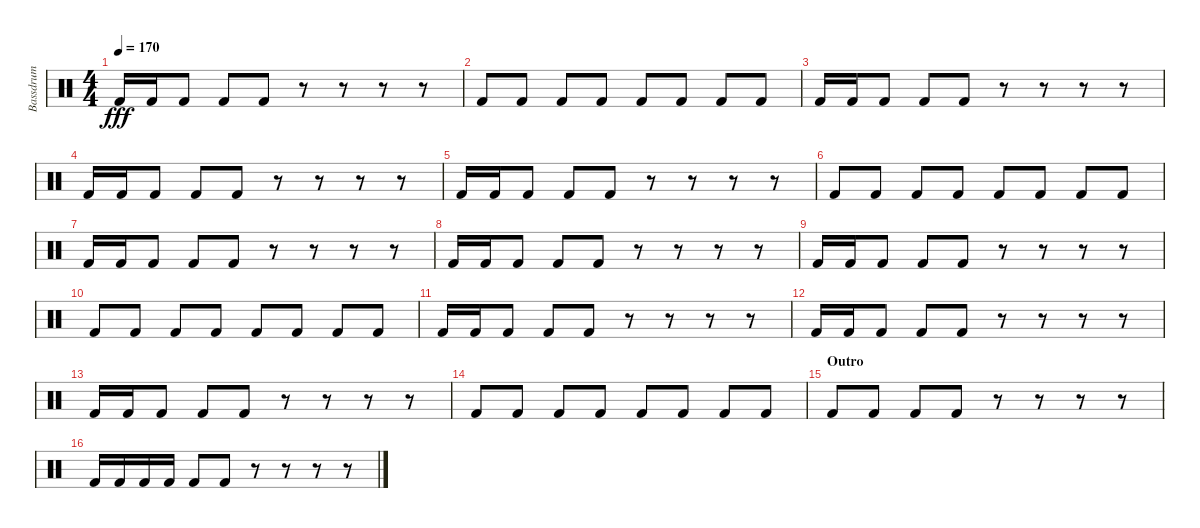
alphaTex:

\track ("Bassdrum" "Bassdrum") {instrument percussion}
\staff {score}
\articulation defaults
\ts (4 4)
\tempo 170
\clef neutral
\ks c "Kick (hit) 2".16{dy fff} "Kick (hit) 2".16 "Kick (hit) 2".8 "Kick (hit) 2".8 "Kick (hit) 2".8
r.8 r.8 r.8 r.8 |
"Kick (hit) 2".8 "Kick (hit) 2".8 "Kick (hit) 2".8 "Kick (hit) 2".8 "Kick (hit) 2".8 "Kick (hit) 2".8 "Kick (hit) 2".8 "Kick (hit) 2".8 |
"Kick (hit) 2".16 "Kick (hit) 2".16 "Kick (hit) 2".8 "Kick (hit) 2".8 "Kick (hit) 2".8 r.8 r.8 r.8 r.8 |
"Kick (hit) 2".16 "Kick (hit) 2".16 "Kick (hit) 2".8 "Kick (hit) 2".8 "Kick (hit) 2".8 r.8 r.8 r.8 r.8 |
"Kick (hit) 2".16 "Kick (hit) 2".16 "Kick (hit) 2".8 "Kick (hit) 2".8 "Kick (hit) 2".8 r.8 r.8 r.8 r.8 |
"Kick (hit) 2".8 "Kick (hit) 2".8 "Kick (hit) 2".8 "Kick (hit) 2".8 "Kick (hit) 2".8 "Kick (hit) 2".8 "Kick (hit) 2".8 "Kick (hit) 2".8 |
"Kick (hit) 2".16 "Kick (hit) 2".16 "Kick (hit) 2".8 "Kick (hit) 2".8 "Kick (hit) 2".8 r.8 r.8 r.8 r.8 |
"Kick (hit) 2".16 "Kick (hit) 2".16 "Kick (hit) 2".8 "Kick (hit) 2".8 "Kick (hit) 2".8 r.8 r.8 r.8 r.8 |
"Kick (hit) 2".16 "Kick (hit) 2".16 "Kick (hit) 2".8 "Kick (hit) 2".8 "Kick (hit) 2".8 r.8 r.8 r.8 r.8 |
"Kick (hit) 2".8 "Kick (hit) 2".8 "Kick (hit) 2".8 "Kick (hit) 2".8 "Kick (hit) 2".8 "Kick (hit) 2".8 "Kick (hit) 2".8 "Kick (hit) 2".8 |
"Kick (hit) 2".16 "Kick (hit) 2".16 "Kick (hit) 2".8 "Kick (hit) 2".8 "Kick (hit) 2".8 r.8 r.8 r.8 r.8 |
"Kick (hit) 2".16 "Kick (hit) 2".16 "Kick (hit) 2".8 "Kick (hit) 2".8 "Kick (hit) 2".8 r.8 r.8 r.8 r.8 |
"Kick (hit) 2".16 "Kick (hit) 2".16 "Kick (hit) 2".8 "Kick (hit) 2".8 "Kick (hit) 2".8 r.8 r.8 r.8 r.8 |
"Kick (hit) 2".8 "Kick (hit) 2".8 "Kick (hit) 2".8 "Kick (hit) 2".8 "Kick (hit) 2".8 "Kick (hit) 2".8 "Kick (hit) 2".8 "Kick (hit) 2".8 |
\section ("" "Outro")
"Kick (hit) 2".8 "Kick (hit) 2".8 "Kick (hit) 2".8 "Kick (hit) 2".8 r.8 r.8 r.8 r.8 |
"Kick (hit) 2".16 "Kick (hit) 2".16 "Kick (hit) 2".16 "Kick (hit) 2".16 "Kick (hit) 2".8 "Kick (hit) 2".8 r.8 r.8 r.8 r.8
